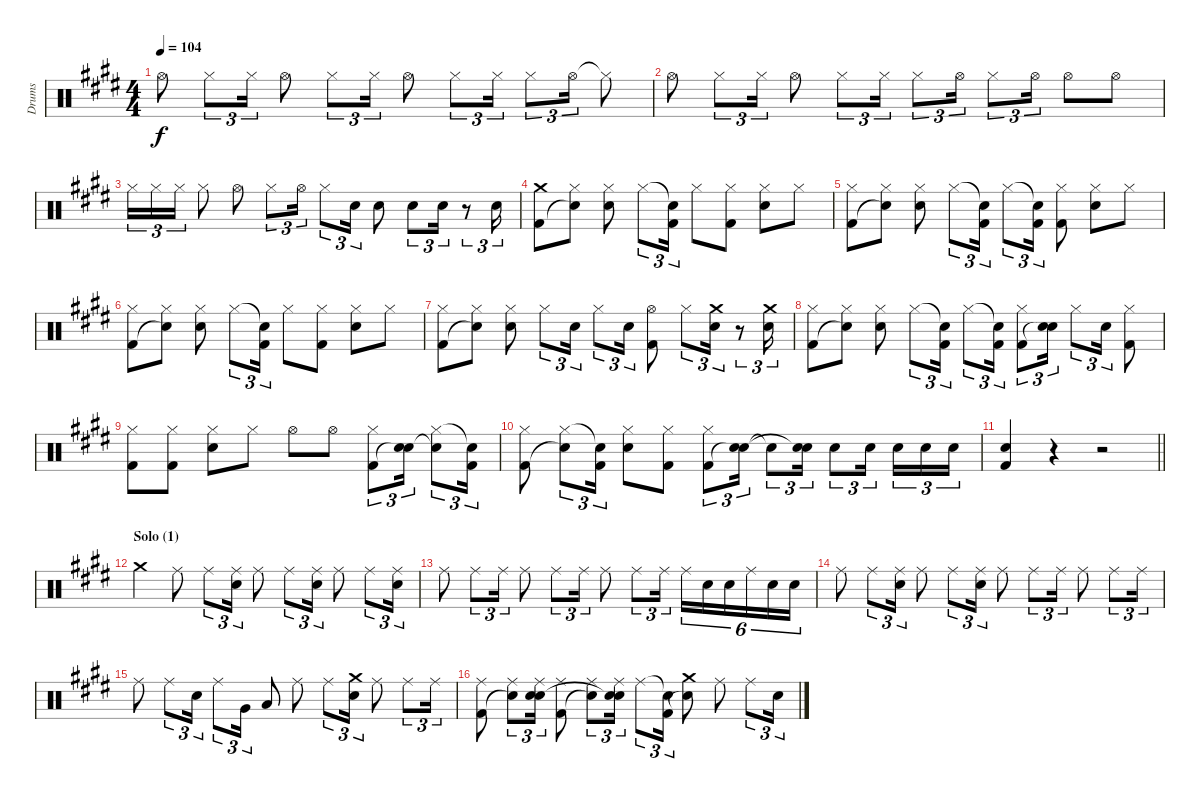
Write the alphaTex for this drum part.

\track ("Drums" "Drums") {instrument percussion}
\staff {score}
\articulation defaults
\ts (4 4)
\tempo 104
\clef neutral
\ks c#minor "Hi-Hat (open)".8{dy f} "Hi-Hat (closed)".8{tu (3 2)} "Hi-Hat (closed)".16{tu (3 2)} "Hi-Hat (open)".8 "Hi-Hat (closed)".8{tu (3 2)} "Hi-Hat (closed)".16{tu (3 2)} "Hi-Hat (open)".8 "Hi-Hat (closed)".8{tu (3 2)} "Hi-Hat (closed)".16{tu (3 2)} "Hi-Hat (closed)".8{tu (3 2)} "Hi-Hat (open)".16{tu (3 2)} "Hi-Hat (closed)"{t}.8
|
"Hi-Hat (open)".8 "Hi-Hat (closed)".8{tu (3 2)} "Hi-Hat (closed)".16{tu (3 2)} "Hi-Hat (open)".8 "Hi-Hat (closed)".8{tu (3 2)} "Hi-Hat (closed)".16{tu (3 2)} "Hi-Hat (closed)".8{tu (3 2)} "Hi-Hat (open)".16{tu (3 2)} "Hi-Hat (closed)".8{tu (3 2)} "Hi-Hat (open)".16{tu (3 2)} "Hi-Hat (open)".8 "Hi-Hat (open)".8 |
"Hi-Hat (closed)".16{tu (3 2)} "Hi-Hat (closed)".16{tu (3 2)} "Hi-Hat (closed)".16{tu (3 2)} "Hi-Hat (closed)".8 "Hi-Hat (open)".8 "Hi-Hat (closed)".8{tu (3 2)} "Hi-Hat (open)".16{tu (3 2)} "Hi-Hat (closed)".8{tu (3 2)} "Electric Snare (hit)".16{tu (3 2)} "Electric Snare (hit)".8 "Electric Snare (hit)".8{tu (3 2)} "Electric Snare (hit)".16{tu (3 2)} r.8{tu (3 2)} "Electric Snare (hit)".16{tu (3 2)} |
("Crash medium (hit)" "Kick (hit) 2").8 ("Hi-Hat (closed)" "Snare (hit)"{t}).8 ("Hi-Hat (closed)" "Electric Snare (hit)").8 "Hi-Hat (closed)".8{tu (3 2)} ("Snare (hit)"{t} "Kick (hit) 2").16{tu (3 2)} "Hi-Hat (closed)".8 ("Hi-Hat (closed)" "Kick (hit) 2").8 ("Hi-Hat (closed)" "Electric Snare (hit)").8 "Hi-Hat (closed)".8 |
("Hi-Hat (closed)" "Kick (hit) 2").8 ("Hi-Hat (closed)" "Snare (hit)"{t}).8 ("Hi-Hat (closed)" "Electric Snare (hit)").8 "Hi-Hat (closed)".8{tu (3 2)} ("Snare (hit)"{t} "Kick (hit) 2").16{tu (3 2)} "Hi-Hat (closed)".8{tu (3 2)} ("Snare (hit)"{t} "Kick (hit) 2").16{tu (3 2)} ("Hi-Hat (closed)" "Kick (hit) 2").8 ("Hi-Hat (closed)" "Electric Snare (hit)").8 "Hi-Hat (closed)".8 |
("Hi-Hat (closed)" "Kick (hit) 2").8 ("Hi-Hat (closed)" "Snare (hit)"{t}).8 ("Hi-Hat (closed)" "Electric Snare (hit)").8 "Hi-Hat (closed)".8{tu (3 2)} ("Snare (hit)"{t} "Kick (hit) 2").16{tu (3 2)} "Hi-Hat (closed)".8 ("Hi-Hat (closed)" "Kick (hit) 2").8 ("Hi-Hat (closed)" "Electric Snare (hit)").8 "Hi-Hat (closed)".8 |
("Hi-Hat (closed)" "Kick (hit) 2").8 ("Hi-Hat (closed)" "Snare (hit)"{t}).8 ("Hi-Hat (closed)" "Electric Snare (hit)").8 "Hi-Hat (closed)".8{tu (3 2)} "Electric Snare (hit)".16{tu (3 2)} "Hi-Hat (closed)".8{tu (3 2)} "Electric Snare (hit)".16{tu (3 2)} ("Hi-Hat (open)" "Kick (hit) 2").8 "Hi-Hat (closed)".8{tu (3 2)} ("Crash medium (hit)" "Electric Snare (hit)").16{tu (3 2)} r.8{tu (3 2)} ("Crash medium (hit)" "Electric Snare (hit)").16{tu (3 2)} |
("Hi-Hat (closed)" "Kick (hit) 2").8 ("Hi-Hat (closed)" "Snare (hit)"{t}).8 ("Hi-Hat (closed)" "Electric Snare (hit)").8 "Hi-Hat (closed)".8{tu (3 2)} ("Snare (hit)"{t} "Kick (hit) 2").16{tu (3 2)} "Hi-Hat (closed)".8{tu (3 2)} ("Snare (hit)"{t} "Kick (hit) 2").16{tu (3 2)} ("Hi-Hat (closed)" "Kick (hit) 2").8{tu (3 2)} ("Electric Snare (hit)" "Snare (hit)"{t}).16{tu (3 2)} "Hi-Hat (closed)".8{tu (3 2)} "Electric Snare (hit)".16{tu (3 2)} ("Hi-Hat (closed)" "Kick (hit) 2").8 |
("Hi-Hat (closed)" "Kick (hit) 2").8 ("Hi-Hat (closed)" "Kick (hit) 2").8 ("Hi-Hat (closed)" "Electric Snare (hit)").8 "Hi-Hat (closed)".8 "Hi-Hat (open)".8 "Hi-Hat (open)".8 ("Hi-Hat (closed)" "Kick (hit) 2").8{tu (3 2)} ("Electric Snare (hit)" "Snare (hit)"{t}).16{tu (3 2)} ("Hi-Hat (closed)" "Snare (hit)"{t}).8{tu (3 2)} ("Snare (hit)"{t} "Kick (hit) 2").16{tu (3 2)} |
("Hi-Hat (closed)" "Kick (hit) 2").8 ("Hi-Hat (closed)" "Snare (hit)"{t}).8{tu (3 2)} ("Snare (hit)"{t} "Kick (hit) 2").16{tu (3 2)} ("Hi-Hat (closed)" "Electric Snare (hit)").8 ("Hi-Hat (closed)" "Kick (hit) 2").8 ("Hi-Hat (closed)" "Kick (hit) 2").8{tu (3 2)} ("Electric Snare (hit)" "Snare (hit)"{t}).16{tu (3 2)} "Snare (hit)"{t}.8{tu (3 2)} ("Electric Snare (hit)" "Snare (hit)"{t}).16{tu (3 2)} "Electric Snare (hit)".8{tu (3 2)} "Electric Snare (hit)".16{tu (3 2)} "Electric Snare (hit)".16{tu (3 2)} "Electric Snare (hit)".16{tu (3 2)} "Electric Snare (hit)".16{tu (3 2)} |
\barLineRight lightlight
("Electric Snare (hit)" "Kick (hit) 2").4 r.4 r.2 |
\section ("" "Solo (1)")
"Crash medium (hit)".4 "Ride (middle)".8 "Ride (middle)".8{tu (3 2)} ("Ride (middle)" "Electric Snare (hit)").16{tu (3 2)} "Ride (middle)".8 "Ride (middle)".8{tu (3 2)} ("Ride (middle)" "Electric Snare (hit)").16{tu (3 2)} "Ride (middle)".8 "Ride (middle)".8{tu (3 2)} ("Ride (middle)" "Electric Snare (hit)").16{tu (3 2)} |
"Ride (middle)".8 "Ride (middle)".8{tu (3 2)} "Ride (middle)".16{tu (3 2)} "Ride (middle)".8 "Ride (middle)".8{tu (3 2)} "Ride (middle)".16{tu (3 2)} "Ride (middle)".8 "Ride (middle)".8{tu (3 2)} "Ride (middle)".16{tu (3 2)} "Ride (middle)".16{tu (6 4)} "Electric Snare (hit)".16{tu (6 4)} "Electric Snare (hit)".16{tu (6 4)} "Ride (middle)".16{tu (6 4)} "Electric Snare (hit)".16{tu (6 4)} "Electric Snare (hit)".16{tu (6 4)} |
"Ride (middle)".8 "Ride (middle)".8{tu (3 2)} ("Ride (middle)" "Electric Snare (hit)").16{tu (3 2)} "Ride (middle)".8 "Ride (middle)".8{tu (3 2)} ("Ride (middle)" "Electric Snare (hit)").16{tu (3 2)} "Ride (middle)".8 "Ride (middle)".8{tu (3 2)} "Ride (middle)".16{tu (3 2)} "Ride (middle)".8 "Ride (middle)".8{tu (3 2)} "Ride (middle)".16{tu (3 2)} |
"Ride (middle)".8 "Ride (middle)".8{tu (3 2)} "Electric Snare (hit)".16{tu (3 2)} "Ride (middle)".8{tu (3 2)} "Very Low Tom (hit)".16{tu (3 2)} "Low Tom (hit)".8 "Ride (middle)".8 "Ride (middle)".8{tu (3 2)} ("Crash medium (hit)" "Electric Snare (hit)").16{tu (3 2)} "Ride (middle)".8 "Ride (middle)".8{tu (3 2)} "Ride (middle)".16{tu (3 2)} |
("Ride (middle)" "Kick (hit) 2").8 ("Ride (middle)" "Snare (hit)"{t}).8{tu (3 2)} ("Ride (middle)" "Electric Snare (hit)" "Snare (hit)").16{tu (3 2)} ("Ride (middle)" "Kick (hit) 2").8 ("Ride (middle)" "Snare (hit)"{t}).8{tu (3 2)} ("Ride (middle)" "Electric Snare (hit)" "Snare (hit)"{t}).16{tu (3 2)} "Ride (middle)".8{tu (3 2)} ("Snare (hit)"{t} "Kick (hit) 2").16{tu (3 2)} ("Crash medium (hit)" "Snare (hit)"{t}).8 "Ride (middle)".8 "Ride (middle)".8{tu (3 2)} "Electric Snare (hit)".16{tu (3 2)}
